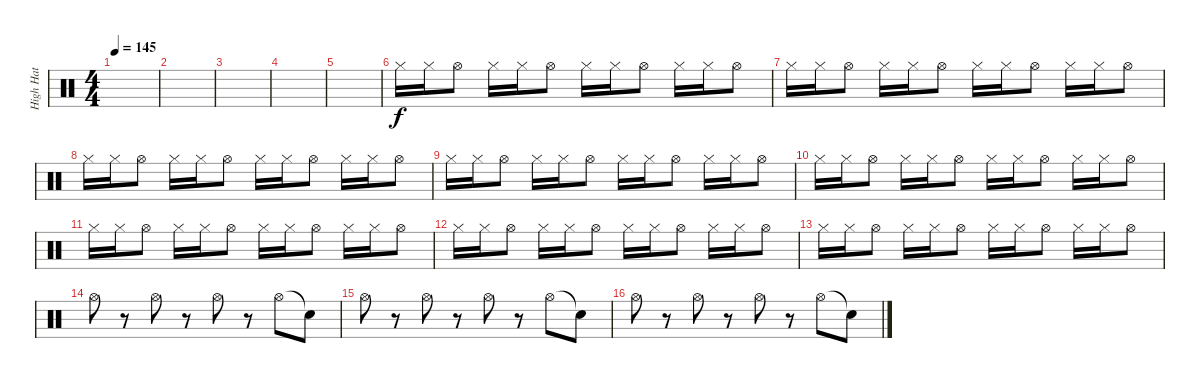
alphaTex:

\track ("High Hat" "High Hat") {instrument percussion}
\staff {score}
\articulation defaults
\ts (4 4)
\tempo 145
\clef neutral
\ks c
|
|
|
|
|
"Hi-Hat (closed)".16 "Hi-Hat (closed)".16 "Hi-Hat (open)".8 "Hi-Hat (closed)".16 "Hi-Hat (closed)".16 "Hi-Hat (open)".8 "Hi-Hat (closed)".16 "Hi-Hat (closed)".16 "Hi-Hat (open)".8 "Hi-Hat (closed)".16 "Hi-Hat (closed)".16 "Hi-Hat (open)".8 |
"Hi-Hat (closed)".16 "Hi-Hat (closed)".16 "Hi-Hat (open)".8 "Hi-Hat (closed)".16 "Hi-Hat (closed)".16 "Hi-Hat (open)".8 "Hi-Hat (closed)".16 "Hi-Hat (closed)".16 "Hi-Hat (open)".8 "Hi-Hat (closed)".16 "Hi-Hat (closed)".16 "Hi-Hat (open)".8 |
"Hi-Hat (closed)".16 "Hi-Hat (closed)".16 "Hi-Hat (open)".8 "Hi-Hat (closed)".16 "Hi-Hat (closed)".16 "Hi-Hat (open)".8 "Hi-Hat (closed)".16 "Hi-Hat (closed)".16 "Hi-Hat (open)".8 "Hi-Hat (closed)".16 "Hi-Hat (closed)".16 "Hi-Hat (open)".8 |
"Hi-Hat (closed)".16 "Hi-Hat (closed)".16 "Hi-Hat (open)".8 "Hi-Hat (closed)".16 "Hi-Hat (closed)".16 "Hi-Hat (open)".8 "Hi-Hat (closed)".16 "Hi-Hat (closed)".16 "Hi-Hat (open)".8 "Hi-Hat (closed)".16 "Hi-Hat (closed)".16 "Hi-Hat (open)".8 |
"Hi-Hat (closed)".16 "Hi-Hat (closed)".16 "Hi-Hat (open)".8 "Hi-Hat (closed)".16 "Hi-Hat (closed)".16 "Hi-Hat (open)".8 "Hi-Hat (closed)".16 "Hi-Hat (closed)".16 "Hi-Hat (open)".8 "Hi-Hat (closed)".16 "Hi-Hat (closed)".16 "Hi-Hat (open)".8 |
"Hi-Hat (closed)".16 "Hi-Hat (closed)".16 "Hi-Hat (open)".8 "Hi-Hat (closed)".16 "Hi-Hat (closed)".16 "Hi-Hat (open)".8 "Hi-Hat (closed)".16 "Hi-Hat (closed)".16 "Hi-Hat (open)".8 "Hi-Hat (closed)".16 "Hi-Hat (closed)".16 "Hi-Hat (open)".8 |
"Hi-Hat (closed)".16 "Hi-Hat (closed)".16 "Hi-Hat (open)".8 "Hi-Hat (closed)".16 "Hi-Hat (closed)".16 "Hi-Hat (open)".8 "Hi-Hat (closed)".16 "Hi-Hat (closed)".16 "Hi-Hat (open)".8 "Hi-Hat (closed)".16 "Hi-Hat (closed)".16 "Hi-Hat (open)".8 |
"Hi-Hat (closed)".16 "Hi-Hat (closed)".16 "Hi-Hat (open)".8 "Hi-Hat (closed)".16 "Hi-Hat (closed)".16 "Hi-Hat (open)".8 "Hi-Hat (closed)".16 "Hi-Hat (closed)".16 "Hi-Hat (open)".8 "Hi-Hat (closed)".16 "Hi-Hat (closed)".16 "Hi-Hat (open)".8 |
"Hi-Hat (open)".8 r.8 "Hi-Hat (open)".8 r.8 "Hi-Hat (open)".8 r.8 "Hi-Hat (open)".8 "Snare (hit)"{t}.8 |
"Hi-Hat (open)".8 r.8 "Hi-Hat (open)".8 r.8 "Hi-Hat (open)".8 r.8 "Hi-Hat (open)".8 "Snare (hit)"{t}.8 |
"Hi-Hat (open)".8 r.8 "Hi-Hat (open)".8 r.8 "Hi-Hat (open)".8 r.8 "Hi-Hat (open)".8 "Snare (hit)"{t}.8
